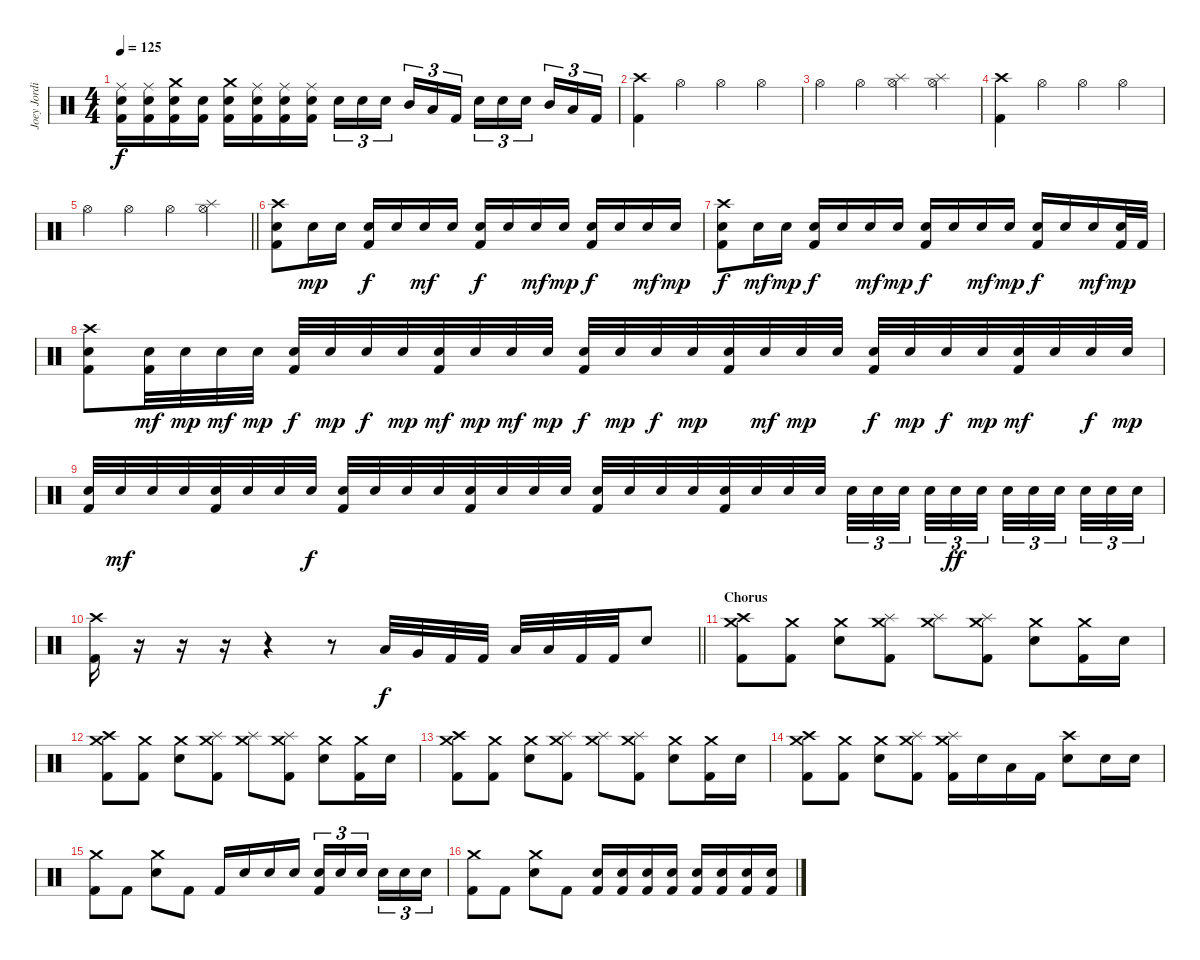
\track ("Joey Jordison" "Joey Jordi") {instrument percussion}
\staff {score}
\articulation defaults
\ts (4 4)
\tempo 125
\clef neutral
\ks c
("Ride (middle)" "Snare (hit) 2" "Kick (hit) 2").16{dy f} ("Ride (middle)" "Snare (hit) 2" "Kick (hit) 2").16 ("Crash medium (hit)" "Snare (hit) 2" "Kick (hit) 2").16 ("Snare (hit) 2" "Kick (hit) 2").16 ("Crash medium (hit)" "Snare (hit) 2" "Kick (hit) 2").16 ("Ride (middle)" "Snare (hit) 2" "Kick (hit) 2").16 ("Ride (middle)" "Snare (hit) 2" "Kick (hit) 2").16 ("Ride (middle)" "Snare (hit) 2" "Kick (hit) 2").16 "Snare (hit) 2".16{tu (3 2)} "Snare (hit) 2".16{tu (3 2)} "Snare (hit) 2".16{tu (3 2) beam splitsecondary} "Mid Tom (hit)".16{tu (3 2)} "Low Tom (hit)".16{tu (3 2)} "Kick (hit) 2".16{tu (3 2)} "Snare (hit) 2".16{tu (3 2)} "Snare (hit) 2".16{tu (3 2)} "Snare (hit) 2".16{tu (3 2) beam splitsecondary} "Mid Tom (hit)".16{tu (3 2)} "Low Tom (hit)".16{tu (3 2)} "Kick (hit) 2".16{tu (3 2)} |
("Crash high (hit)" "Kick (hit) 2").4 "Hi-Hat (open)".4 "Hi-Hat (open)".4 "Hi-Hat (open)".4 |
"Hi-Hat (open)".4 "Hi-Hat (open)".4 ("Hi-Hat (open)" "Splash (hit)").4 ("Hi-Hat (open)" "Splash (hit)").4 |
("Crash high (hit)" "Kick (hit) 2").4 "Hi-Hat (open)".4 "Hi-Hat (open)".4 "Hi-Hat (open)".4 |
\barLineRight lightlight "Hi-Hat (open)".4 "Hi-Hat (open)".4 "Hi-Hat (open)".4
("Hi-Hat (open)" "Splash (hit)").4 |
("Crash high (hit)" "Snare (hit) 2" "Kick (hit) 2").8 "Snare (hit) 2".16{dy mp} "Snare (hit) 2".16 ("Snare (hit) 2" "Kick (hit) 2").16{dy f} "Snare (hit) 2".16 "Snare (hit) 2".16{dy mf} "Snare (hit) 2".16 ("Snare (hit) 2" "Kick (hit) 2").16{dy f} "Snare (hit) 2".16 "Snare (hit) 2".16{dy mf} "Snare (hit) 2".16{dy mp} ("Snare (hit) 2" "Kick (hit) 2").16{dy f} "Snare (hit) 2".16 "Snare (hit) 2".16{dy mf} "Snare (hit) 2".16{dy mp} |
("Crash high (hit)" "Snare (hit) 2" "Kick (hit) 2").8{dy f} "Snare (hit) 2".16{dy mf} "Snare (hit) 2".16{dy mp} ("Snare (hit) 2" "Kick (hit) 2").16{dy f} "Snare (hit) 2".16 "Snare (hit) 2".16{dy mf} "Snare (hit) 2".16{dy mp} ("Snare (hit) 2" "Kick (hit) 2").16{dy f} "Snare (hit) 2".16 "Snare (hit) 2".16{dy mf} "Snare (hit) 2".16{dy mp} ("Snare (hit) 2" "Kick (hit) 2").16{dy f} "Snare (hit) 2".16 "Snare (hit) 2".16{dy mf} ("Snare (hit) 2" "Kick (hit) 2").32{dy mp} "Kick (hit) 2".32 |
("Crash high (hit)" "Snare (hit) 2" "Kick (hit) 2").8 ("Snare (hit) 2" "Kick (hit) 2").32{dy mf} "Snare (hit) 2".32{dy mp} "Snare (hit) 2".32{dy mf} "Snare (hit) 2".32{dy mp} ("Snare (hit) 2" "Kick (hit) 2").32{dy f} "Snare (hit) 2".32{dy mp} "Snare (hit) 2".32{dy f} "Snare (hit) 2".32{dy mp} ("Snare (hit) 2" "Kick (hit) 2").32{dy mf} "Snare (hit) 2".32{dy mp} "Snare (hit) 2".32{dy mf} "Snare (hit) 2".32{dy mp} ("Snare (hit) 2" "Kick (hit) 2").32{dy f} "Snare (hit) 2".32{dy mp} "Snare (hit) 2".32{dy f} "Snare (hit) 2".32{dy mp} ("Snare (hit) 2" "Kick (hit) 2").32 "Snare (hit) 2".32{dy mf} "Snare (hit) 2".32{dy mp} "Snare (hit) 2".32 ("Snare (hit) 2" "Kick (hit) 2").32{dy f} "Snare (hit) 2".32{dy mp} "Snare (hit) 2".32{dy f} "Snare (hit) 2".32{dy mp} ("Snare (hit) 2" "Kick (hit) 2").32{dy mf} "Snare (hit) 2".32 "Snare (hit) 2".32{dy f} "Snare (hit) 2".32{dy mp} |
("Snare (hit) 2" "Kick (hit) 2").32 "Snare (hit) 2".32{dy mf} "Snare (hit) 2".32 "Snare (hit) 2".32 ("Snare (hit) 2" "Kick (hit) 2").32 "Snare (hit) 2".32 "Snare (hit) 2".32 "Snare (hit) 2".32{dy f} ("Snare (hit) 2" "Kick (hit) 2").32 "Snare (hit) 2".32 "Snare (hit) 2".32 "Snare (hit) 2".32 ("Snare (hit) 2" "Kick (hit) 2").32 "Snare (hit) 2".32 "Snare (hit) 2".32 "Snare (hit) 2".32 ("Snare (hit) 2" "Kick (hit) 2").32 "Snare (hit) 2".32 "Snare (hit) 2".32 "Snare (hit) 2".32 ("Snare (hit) 2" "Kick (hit) 2").32 "Snare (hit) 2".32 "Snare (hit) 2".32 "Snare (hit) 2".32 "Snare (hit) 2".32{tu (3 2)} "Snare (hit) 2".32{tu (3 2)} "Snare (hit) 2".32{tu (3 2) beam splitsecondary} "Snare (hit) 2".32{tu (3 2)} "Snare (hit) 2".32{tu (3 2) dy ff} "Snare (hit) 2".32{tu (3 2) beam splitsecondary} "Snare (hit) 2".32{tu (3 2)} "Snare (hit) 2".32{tu (3 2)} "Snare (hit) 2".32{tu (3 2) beam splitsecondary} "Snare (hit) 2".32{tu (3 2)} "Snare (hit) 2".32{tu (3 2)} "Snare (hit) 2".32{tu (3 2)} |
\barLineRight lightlight
("Crash high (hit)" "Kick (hit) 2").16 r.16 r.16 r.16 r.4 r.8 "Low Tom (hit)".32{dy f} "Very Low Tom (hit)".32 "Kick (hit) 2".32 "Kick (hit) 2".32 "Low Tom (hit)".32 "Low Floor Tom (hit)".32 "Kick (hit) 2".32 "Kick (hit) 2".32 "Snare (hit) 2".8 |
\section ("" "Chorus")
("Crash medium (hit)" "Crash high (hit)" "Kick (hit) 2").8 ("Crash medium (hit)" "Kick (hit) 2").8 ("Crash medium (hit)" "Snare (hit) 2").8 ("Crash medium (hit)" "Splash (hit)" "Kick (hit) 2").8 ("Crash medium (hit)" "Splash (hit)").8 ("Crash medium (hit)" "Splash (hit)" "Kick (hit) 2").8 ("Crash medium (hit)" "Snare (hit) 2").8 ("Crash medium (hit)" "Kick (hit) 2").16 "Snare (hit) 2".16 |
("Crash medium (hit)" "Crash high (hit)" "Kick (hit) 2").8 ("Crash medium (hit)" "Kick (hit) 2").8 ("Crash medium (hit)" "Snare (hit) 2").8 ("Crash medium (hit)" "Splash (hit)" "Kick (hit) 2").8 ("Crash medium (hit)" "Splash (hit)").8 ("Crash medium (hit)" "Splash (hit)" "Kick (hit) 2").8 ("Crash medium (hit)" "Snare (hit) 2").8 ("Crash medium (hit)" "Kick (hit) 2").16 "Snare (hit) 2".16 |
("Crash medium (hit)" "Crash high (hit)" "Kick (hit) 2").8 ("Crash medium (hit)" "Kick (hit) 2").8 ("Crash medium (hit)" "Snare (hit) 2").8 ("Crash medium (hit)" "Splash (hit)" "Kick (hit) 2").8 ("Crash medium (hit)" "Splash (hit)").8 ("Crash medium (hit)" "Splash (hit)" "Kick (hit) 2").8 ("Crash medium (hit)" "Snare (hit) 2").8 ("Crash medium (hit)" "Kick (hit) 2").16 "Snare (hit) 2".16 |
("Crash medium (hit)" "Crash high (hit)" "Kick (hit) 2").8 ("Crash medium (hit)" "Kick (hit) 2").8 ("Crash medium (hit)" "Snare (hit) 2").8 ("Crash medium (hit)" "Splash (hit)" "Kick (hit) 2").8 ("Crash medium (hit)" "Splash (hit)" "Kick (hit) 2").16 "Snare (hit) 2".16 "Low Tom (hit)".16 "Kick (hit) 2".16 ("Crash high (hit)" "Snare (hit) 2").8 "Snare (hit) 2".16 "Snare (hit) 2".16 |
("Crash medium (hit)" "Kick (hit) 2").8 "Kick (hit) 2".8 ("Crash medium (hit)" "Snare (hit) 2").8 "Kick (hit) 2".8 "Kick (hit) 2".16 "Snare (hit) 2".16 "Snare (hit) 2".16 "Snare (hit) 2".16 ("Snare (hit) 2" "Kick (hit) 2").16{tu (3 2)} "Snare (hit) 2".16{tu (3 2)} "Snare (hit) 2".16{tu (3 2) beam splitsecondary} "Snare (hit) 2".16{tu (3 2)} "Snare (hit) 2".16{tu (3 2)} "Snare (hit) 2".16{tu (3 2)} |
("Crash medium (hit)" "Kick (hit) 2").8 "Kick (hit) 2".8 ("Crash medium (hit)" "Snare (hit) 2").8 "Kick (hit) 2".8 ("Snare (hit) 2" "Kick (hit) 2").16 ("Snare (hit) 2" "Kick (hit) 2").16 ("Snare (hit) 2" "Kick (hit) 2").16 ("Snare (hit) 2" "Kick (hit) 2").16 ("Snare (hit) 2" "Kick (hit) 2").16 ("Snare (hit) 2" "Kick (hit) 2").16 ("Snare (hit) 2" "Kick (hit) 2").16 ("Snare (hit) 2" "Kick (hit) 2").16
